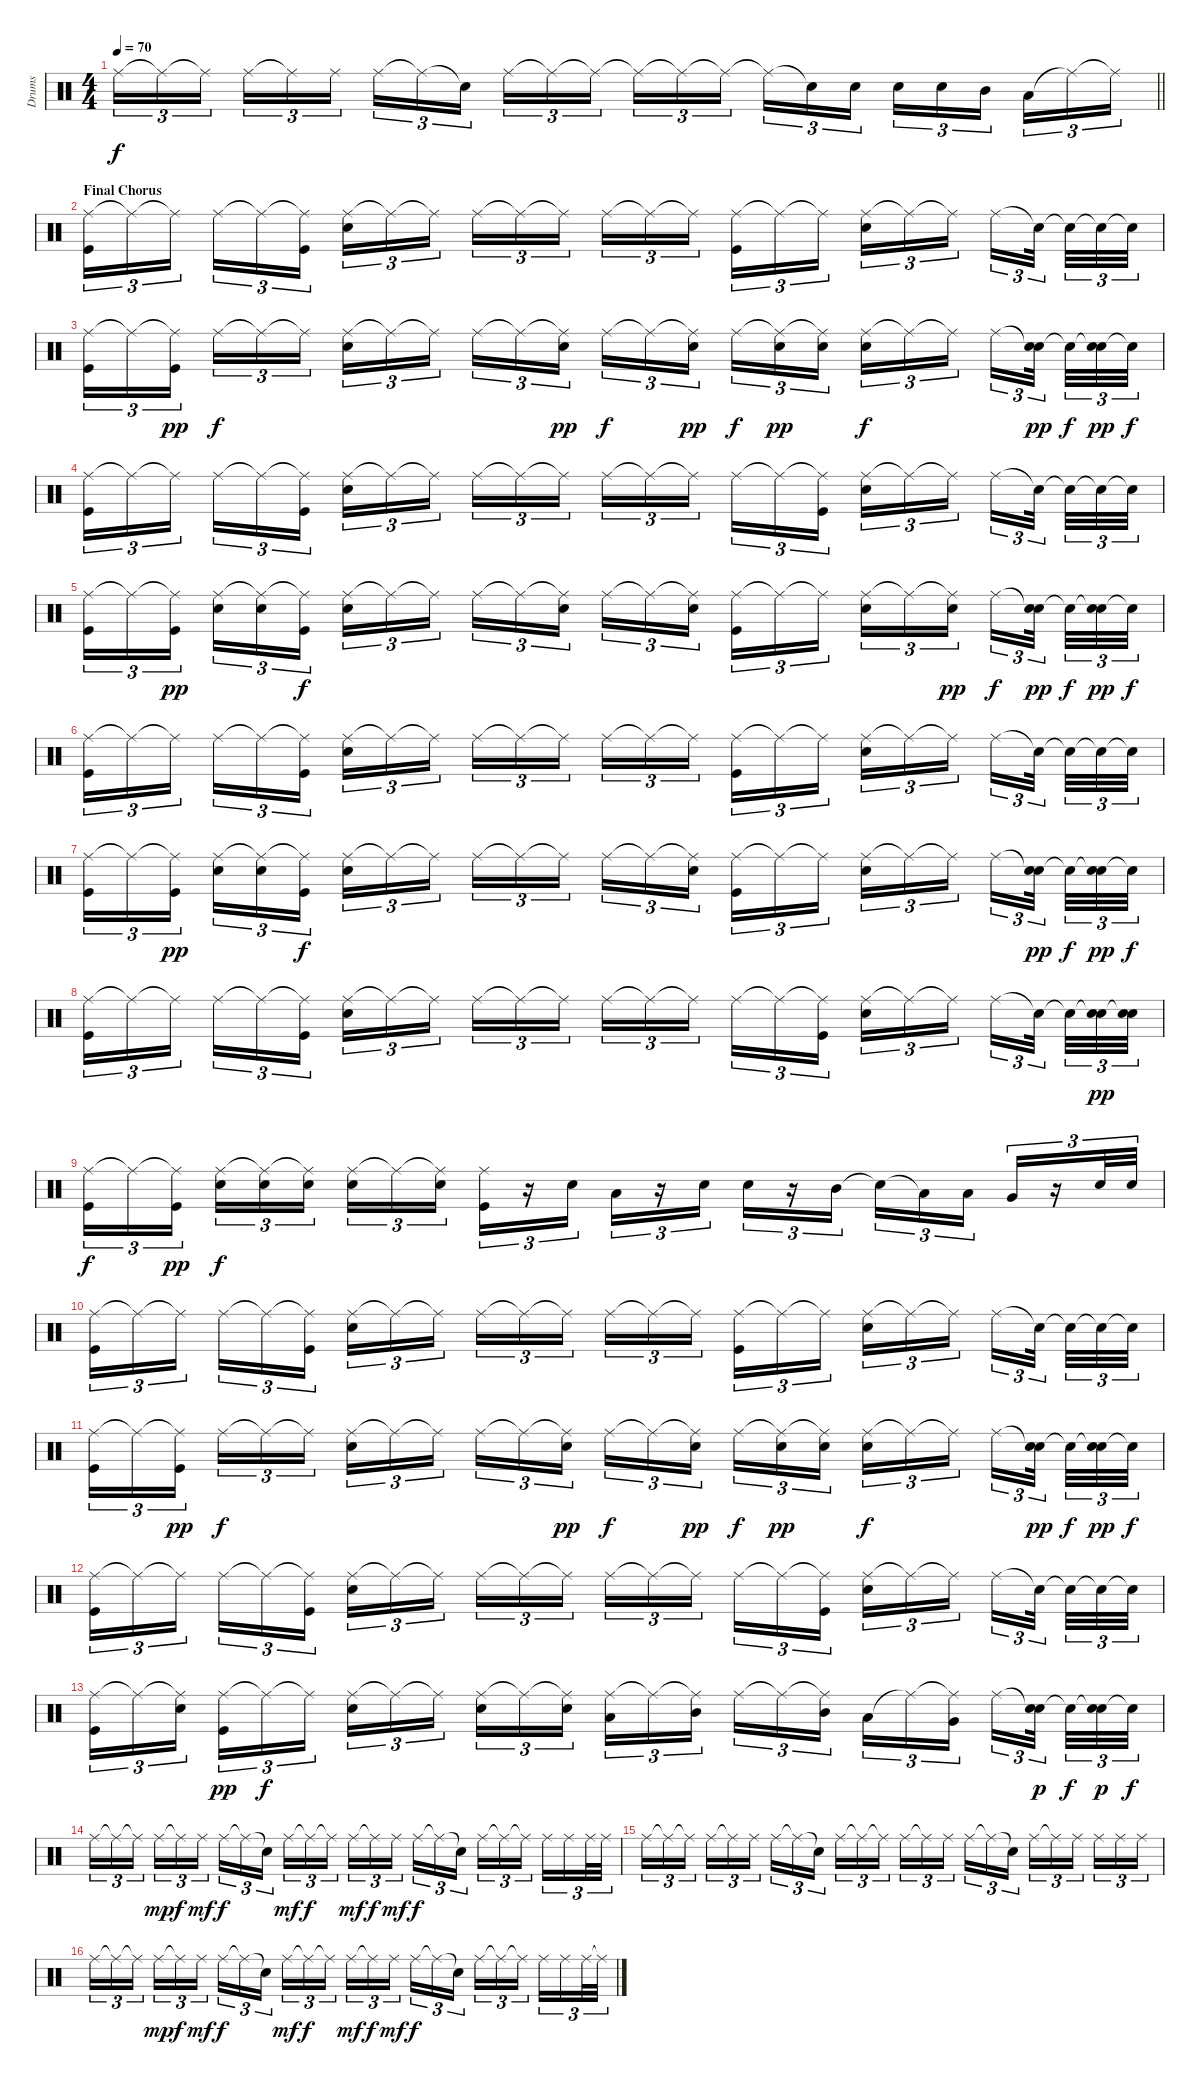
\track ("Drums" "Drums") {instrument percussion}
\staff {score}
\articulation defaults
\ts (4 4)
\tempo 70
\clef neutral
\barLineRight lightlight
\ks c "Ride (middle)".16{tu (3 2) dy f} "Ride (middle)"{t}.16{tu (3 2)} "Ride (middle)"{t}.16{tu (3 2)} "Ride (middle)".16{tu (3 2)} "Ride (middle)"{t}.16{tu (3 2)} "Ride (middle)".16{tu (3 2)} "Ride (middle)".16{tu (3 2)} "Ride (middle)"{t}.16{tu (3 2)} "Snare (hit)"{t}.16{tu (3 2)} "Ride (middle)".16{tu (3 2)} "Ride (middle)"{t}.16{tu (3 2)} "Ride (middle)"{t}.16{tu (3 2)} "Ride (middle)"{t}.16{tu (3 2)} "Ride (middle)"{t}.16{tu (3 2)} "Ride (middle)"{t}.16{tu (3 2)} "Ride (middle)"{t}.16{tu (3 2)} "Electric Snare (hit)"{t}.16{tu (3 2)} "Electric Snare (hit)".16{tu (3 2)} "Electric Snare (hit)".16{tu (3 2)} "Electric Snare (hit)".16{tu (3 2)} "Mid Tom (hit)".16{tu (3 2)} "Low Tom (hit)".16{tu (3 2)} "Ride (middle)"{t}.16{tu (3 2)} "Ride (middle)"{t}.16{tu (3 2)}
|
\section ("" "Final Chorus")
("Ride (middle)" "Kick (hit)").16{tu (3 2)} "Ride (middle)"{t}.16{tu (3 2)} "Ride (middle)"{t}.16{tu (3 2)} "Ride (middle)".16{tu (3 2)} "Ride (middle)"{t}.16{tu (3 2)} ("Ride (middle)"{t} "Kick (hit)").16{tu (3 2)} ("Ride (middle)" "Electric Snare (hit)").16{tu (3 2)} "Ride (middle)"{t}.16{tu (3 2)} "Ride (middle)"{t}.16{tu (3 2)} "Ride (middle)".16{tu (3 2)} "Ride (middle)"{t}.16{tu (3 2)} "Ride (middle)"{t}.16{tu (3 2)} "Ride (middle)".16{tu (3 2)} "Ride (middle)"{t}.16{tu (3 2)} "Ride (middle)"{t}.16{tu (3 2)} ("Ride (middle)" "Kick (hit)").16{tu (3 2)} "Ride (middle)"{t}.16{tu (3 2)} "Ride (middle)"{t}.16{tu (3 2)} ("Ride (middle)" "Electric Snare (hit)").16{tu (3 2)} "Ride (middle)"{t}.16{tu (3 2)} "Ride (middle)"{t}.16{tu (3 2)} "Ride (middle)".16{tu (3 2)} "Snare (hit)"{t}.32{tu (3 2)} "Snare (hit)"{t}.32{tu (3 2)} "Snare (hit)"{t}.32{tu (3 2)} "Snare (hit)"{t}.32{tu (3 2)} |
("Ride (middle)" "Kick (hit)").16{tu (3 2)} "Ride (middle)"{t}.16{tu (3 2)} ("Ride (middle)"{t} "Kick (hit)").16{tu (3 2) dy pp} "Ride (middle)".16{tu (3 2) dy f} "Ride (middle)"{t}.16{tu (3 2)} "Ride (middle)"{t}.16{tu (3 2)} ("Ride (middle)" "Electric Snare (hit)").16{tu (3 2)} "Ride (middle)"{t}.16{tu (3 2)} "Ride (middle)"{t}.16{tu (3 2)} "Ride (middle)".16{tu (3 2)} "Ride (middle)"{t}.16{tu (3 2)} ("Ride (middle)"{t} "Electric Snare (hit)").16{tu (3 2) dy pp} "Ride (middle)".16{tu (3 2) dy f} "Ride (middle)"{t}.16{tu (3 2)} ("Ride (middle)"{t} "Electric Snare (hit)").16{tu (3 2) dy pp} "Ride (middle)".16{tu (3 2) dy f} ("Ride (middle)"{t} "Electric Snare (hit)").16{tu (3 2) dy pp} ("Ride (middle)"{t} "Electric Snare (hit)").16{tu (3 2)} ("Ride (middle)" "Electric Snare (hit)").16{tu (3 2) dy f} "Ride (middle)"{t}.16{tu (3 2)} "Ride (middle)"{t}.16{tu (3 2)} "Ride (middle)".16{tu (3 2)} ("Snare (hit)"{t} "Electric Snare (hit)").32{tu (3 2) dy pp} "Snare (hit)"{t}.32{tu (3 2) dy f} ("Snare (hit)"{t} "Electric Snare (hit)").32{tu (3 2) dy pp} "Snare (hit)"{t}.32{tu (3 2) dy f} |
("Ride (middle)" "Kick (hit)").16{tu (3 2)} "Ride (middle)"{t}.16{tu (3 2)} "Ride (middle)"{t}.16{tu (3 2)} "Ride (middle)".16{tu (3 2)} "Ride (middle)"{t}.16{tu (3 2)} ("Ride (middle)"{t} "Kick (hit)").16{tu (3 2)} ("Ride (middle)" "Electric Snare (hit)").16{tu (3 2)} "Ride (middle)"{t}.16{tu (3 2)} "Ride (middle)"{t}.16{tu (3 2)} "Ride (middle)".16{tu (3 2)} "Ride (middle)"{t}.16{tu (3 2)} "Ride (middle)"{t}.16{tu (3 2)} "Ride (middle)".16{tu (3 2)} "Ride (middle)"{t}.16{tu (3 2)} "Ride (middle)"{t}.16{tu (3 2)} "Ride (middle)".16{tu (3 2)} "Ride (middle)"{t}.16{tu (3 2)} ("Ride (middle)"{t} "Kick (hit)").16{tu (3 2)} ("Ride (middle)" "Electric Snare (hit)").16{tu (3 2)} "Ride (middle)"{t}.16{tu (3 2)} "Ride (middle)"{t}.16{tu (3 2)} "Ride (middle)".16{tu (3 2)} "Snare (hit)"{t}.32{tu (3 2)} "Snare (hit)"{t}.32{tu (3 2)} "Snare (hit)"{t}.32{tu (3 2)} "Snare (hit)"{t}.32{tu (3 2)} |
("Ride (middle)" "Kick (hit)").16{tu (3 2)} "Ride (middle)"{t}.16{tu (3 2)} ("Ride (middle)"{t} "Kick (hit)").16{tu (3 2) dy pp} ("Ride (middle)" "Electric Snare (hit)").16{tu (3 2)} ("Ride (middle)"{t} "Electric Snare (hit)").16{tu (3 2)} ("Ride (middle)"{t} "Kick (hit)").16{tu (3 2) dy f} ("Ride (middle)" "Electric Snare (hit)").16{tu (3 2)} "Ride (middle)"{t}.16{tu (3 2)} "Ride (middle)"{t}.16{tu (3 2)} "Ride (middle)".16{tu (3 2)} "Ride (middle)"{t}.16{tu (3 2)} ("Ride (middle)"{t} "Electric Snare (hit)").16{tu (3 2)} "Ride (middle)".16{tu (3 2)} "Ride (middle)"{t}.16{tu (3 2)} ("Ride (middle)"{t} "Electric Snare (hit)").16{tu (3 2)} ("Ride (middle)" "Kick (hit)").16{tu (3 2)} "Ride (middle)"{t}.16{tu (3 2)} "Ride (middle)"{t}.16{tu (3 2)} ("Ride (middle)" "Electric Snare (hit)").16{tu (3 2)} "Ride (middle)"{t}.16{tu (3 2)} ("Ride (middle)"{t} "Electric Snare (hit)").16{tu (3 2) dy pp} "Ride (middle)".16{tu (3 2) dy f} ("Snare (hit)"{t} "Electric Snare (hit)").32{tu (3 2) dy pp} "Snare (hit)"{t}.32{tu (3 2) dy f} ("Snare (hit)"{t} "Electric Snare (hit)").32{tu (3 2) dy pp} "Snare (hit)"{t}.32{tu (3 2) dy f} |
("Ride (middle)" "Kick (hit)").16{tu (3 2)} "Ride (middle)"{t}.16{tu (3 2)} "Ride (middle)"{t}.16{tu (3 2)} "Ride (middle)".16{tu (3 2)} "Ride (middle)"{t}.16{tu (3 2)} ("Ride (middle)"{t} "Kick (hit)").16{tu (3 2)} ("Ride (middle)" "Electric Snare (hit)").16{tu (3 2)} "Ride (middle)"{t}.16{tu (3 2)} "Ride (middle)"{t}.16{tu (3 2)} "Ride (middle)".16{tu (3 2)} "Ride (middle)"{t}.16{tu (3 2)} "Ride (middle)"{t}.16{tu (3 2)} "Ride (middle)".16{tu (3 2)} "Ride (middle)"{t}.16{tu (3 2)} "Ride (middle)"{t}.16{tu (3 2)} ("Ride (middle)" "Kick (hit)").16{tu (3 2)} "Ride (middle)"{t}.16{tu (3 2)} "Ride (middle)"{t}.16{tu (3 2)} ("Ride (middle)" "Electric Snare (hit)").16{tu (3 2)} "Ride (middle)"{t}.16{tu (3 2)} "Ride (middle)"{t}.16{tu (3 2)} "Ride (middle)".16{tu (3 2)} "Snare (hit)"{t}.32{tu (3 2)} "Snare (hit)"{t}.32{tu (3 2)} "Snare (hit)"{t}.32{tu (3 2)} "Snare (hit)"{t}.32{tu (3 2)} |
("Ride (middle)" "Kick (hit)").16{tu (3 2)} "Ride (middle)"{t}.16{tu (3 2)} ("Ride (middle)"{t} "Kick (hit)").16{tu (3 2) dy pp} ("Ride (middle)" "Electric Snare (hit)").16{tu (3 2)} ("Ride (middle)"{t} "Electric Snare (hit)").16{tu (3 2)} ("Ride (middle)"{t} "Kick (hit)").16{tu (3 2) dy f} ("Ride (middle)" "Electric Snare (hit)").16{tu (3 2)} "Ride (middle)"{t}.16{tu (3 2)} "Ride (middle)"{t}.16{tu (3 2)} "Ride (middle)".16{tu (3 2)} "Ride (middle)"{t}.16{tu (3 2)} "Ride (middle)"{t}.16{tu (3 2)} "Ride (middle)".16{tu (3 2)} "Ride (middle)"{t}.16{tu (3 2)} ("Ride (middle)"{t} "Electric Snare (hit)").16{tu (3 2)} ("Ride (middle)" "Kick (hit)").16{tu (3 2)} "Ride (middle)"{t}.16{tu (3 2)} "Ride (middle)"{t}.16{tu (3 2)} ("Ride (middle)" "Electric Snare (hit)").16{tu (3 2)} "Ride (middle)"{t}.16{tu (3 2)} "Ride (middle)"{t}.16{tu (3 2)} "Ride (middle)".16{tu (3 2)} ("Snare (hit)"{t} "Electric Snare (hit)").32{tu (3 2) dy pp} "Snare (hit)"{t}.32{tu (3 2) dy f} ("Snare (hit)"{t} "Electric Snare (hit)").32{tu (3 2) dy pp} "Snare (hit)"{t}.32{tu (3 2) dy f} |
("Ride (middle)" "Kick (hit)").16{tu (3 2)} "Ride (middle)"{t}.16{tu (3 2)} "Ride (middle)"{t}.16{tu (3 2)} "Ride (middle)".16{tu (3 2)} "Ride (middle)"{t}.16{tu (3 2)} ("Ride (middle)"{t} "Kick (hit)").16{tu (3 2)} ("Ride (middle)" "Electric Snare (hit)").16{tu (3 2)} "Ride (middle)"{t}.16{tu (3 2)} "Ride (middle)"{t}.16{tu (3 2)} "Ride (middle)".16{tu (3 2)} "Ride (middle)"{t}.16{tu (3 2)} "Ride (middle)"{t}.16{tu (3 2)} "Ride (middle)".16{tu (3 2)} "Ride (middle)"{t}.16{tu (3 2)} "Ride (middle)"{t}.16{tu (3 2)} "Ride (middle)".16{tu (3 2)} "Ride (middle)"{t}.16{tu (3 2)} ("Ride (middle)"{t} "Kick (hit)").16{tu (3 2)} ("Ride (middle)" "Electric Snare (hit)").16{tu (3 2)} "Ride (middle)"{t}.16{tu (3 2)} "Ride (middle)"{t}.16{tu (3 2)} "Ride (middle)".16{tu (3 2)} "Snare (hit)"{t}.32{tu (3 2)} "Snare (hit)"{t}.32{tu (3 2)} ("Snare (hit)"{t} "Electric Snare (hit)").32{tu (3 2) dy pp} ("Snare (hit)"{t} "Electric Snare (hit)").32{tu (3 2)} |
("Ride (middle)" "Kick (hit)").16{tu (3 2) dy f} "Ride (middle)"{t}.16{tu (3 2)} ("Ride (middle)"{t} "Kick (hit)").16{tu (3 2) dy pp} ("Ride (middle)" "Electric Snare (hit)").16{tu (3 2) dy f} ("Ride (middle)"{t} "Electric Snare (hit)").16{tu (3 2)} ("Ride (middle)"{t} "Electric Snare (hit)").16{tu (3 2)} ("Ride (middle)" "Electric Snare (hit)").16{tu (3 2)} "Ride (middle)"{t}.16{tu (3 2)} ("Ride (middle)"{t} "Electric Snare (hit)").16{tu (3 2)} ("Ride (middle)" "Kick (hit)").16{tu (3 2)} r.16{tu (3 2)} "Electric Snare (hit)".16{tu (3 2)} "Low Tom (hit)".16{tu (3 2)} r.16{tu (3 2)} "Electric Snare (hit)".16{tu (3 2)} "Electric Snare (hit)".16{tu (3 2)} r.16{tu (3 2)} "Mid Tom (hit)".16{tu (3 2)} "Snare (hit)"{t}.16{tu (3 2)} "Low Tom (hit)"{t}.16{tu (3 2)} "Low Tom (hit)".16{tu (3 2)} "Very Low Tom (hit)".16{tu (3 2)} r.16{tu (3 2)} "Electric Snare (hit)".32{tu (3 2)} "Electric Snare (hit)".32{tu (3 2)} |
("Ride (middle)" "Kick (hit)").16{tu (3 2)} "Ride (middle)"{t}.16{tu (3 2)} "Ride (middle)"{t}.16{tu (3 2)} "Ride (middle)".16{tu (3 2)} "Ride (middle)"{t}.16{tu (3 2)} ("Ride (middle)"{t} "Kick (hit)").16{tu (3 2)} ("Ride (middle)" "Electric Snare (hit)").16{tu (3 2)} "Ride (middle)"{t}.16{tu (3 2)} "Ride (middle)"{t}.16{tu (3 2)} "Ride (middle)".16{tu (3 2)} "Ride (middle)"{t}.16{tu (3 2)} "Ride (middle)"{t}.16{tu (3 2)} "Ride (middle)".16{tu (3 2)} "Ride (middle)"{t}.16{tu (3 2)} "Ride (middle)"{t}.16{tu (3 2)} ("Ride (middle)" "Kick (hit)").16{tu (3 2)} "Ride (middle)"{t}.16{tu (3 2)} "Ride (middle)"{t}.16{tu (3 2)} ("Ride (middle)" "Electric Snare (hit)").16{tu (3 2)} "Ride (middle)"{t}.16{tu (3 2)} "Ride (middle)"{t}.16{tu (3 2)} "Ride (middle)".16{tu (3 2)} "Snare (hit)"{t}.32{tu (3 2)} "Snare (hit)"{t}.32{tu (3 2)} "Snare (hit)"{t}.32{tu (3 2)} "Snare (hit)"{t}.32{tu (3 2)} |
("Ride (middle)" "Kick (hit)").16{tu (3 2)} "Ride (middle)"{t}.16{tu (3 2)} ("Ride (middle)"{t} "Kick (hit)").16{tu (3 2) dy pp} "Ride (middle)".16{tu (3 2) dy f} "Ride (middle)"{t}.16{tu (3 2)} "Ride (middle)"{t}.16{tu (3 2)} ("Ride (middle)" "Electric Snare (hit)").16{tu (3 2)} "Ride (middle)"{t}.16{tu (3 2)} "Ride (middle)"{t}.16{tu (3 2)} "Ride (middle)".16{tu (3 2)} "Ride (middle)"{t}.16{tu (3 2)} ("Ride (middle)"{t} "Electric Snare (hit)").16{tu (3 2) dy pp} "Ride (middle)".16{tu (3 2) dy f} "Ride (middle)"{t}.16{tu (3 2)} ("Ride (middle)"{t} "Electric Snare (hit)").16{tu (3 2) dy pp} "Ride (middle)".16{tu (3 2) dy f} ("Ride (middle)"{t} "Electric Snare (hit)").16{tu (3 2) dy pp} ("Ride (middle)"{t} "Electric Snare (hit)").16{tu (3 2)} ("Ride (middle)" "Electric Snare (hit)").16{tu (3 2) dy f} "Ride (middle)"{t}.16{tu (3 2)} "Ride (middle)"{t}.16{tu (3 2)} "Ride (middle)".16{tu (3 2)} ("Snare (hit)"{t} "Electric Snare (hit)").32{tu (3 2) dy pp} "Snare (hit)"{t}.32{tu (3 2) dy f} ("Snare (hit)"{t} "Electric Snare (hit)").32{tu (3 2) dy pp} "Snare (hit)"{t}.32{tu (3 2) dy f} |
("Ride (middle)" "Kick (hit)").16{tu (3 2)} "Ride (middle)"{t}.16{tu (3 2)} "Ride (middle)"{t}.16{tu (3 2)} "Ride (middle)".16{tu (3 2)} "Ride (middle)"{t}.16{tu (3 2)} ("Ride (middle)"{t} "Kick (hit)").16{tu (3 2)} ("Ride (middle)" "Electric Snare (hit)").16{tu (3 2)} "Ride (middle)"{t}.16{tu (3 2)} "Ride (middle)"{t}.16{tu (3 2)} "Ride (middle)".16{tu (3 2)} "Ride (middle)"{t}.16{tu (3 2)} "Ride (middle)"{t}.16{tu (3 2)} "Ride (middle)".16{tu (3 2)} "Ride (middle)"{t}.16{tu (3 2)} "Ride (middle)"{t}.16{tu (3 2)} "Ride (middle)".16{tu (3 2)} "Ride (middle)"{t}.16{tu (3 2)} ("Ride (middle)"{t} "Kick (hit)").16{tu (3 2)} ("Ride (middle)" "Electric Snare (hit)").16{tu (3 2)} "Ride (middle)"{t}.16{tu (3 2)} "Ride (middle)"{t}.16{tu (3 2)} "Ride (middle)".16{tu (3 2)} "Snare (hit)"{t}.32{tu (3 2)} "Snare (hit)"{t}.32{tu (3 2)} "Snare (hit)"{t}.32{tu (3 2)} "Snare (hit)"{t}.32{tu (3 2)} |
("Ride (middle)" "Kick (hit)").16{tu (3 2)} "Ride (middle)"{t}.16{tu (3 2)} ("Ride (middle)"{t} "Electric Snare (hit)").16{tu (3 2)} ("Ride (middle)" "Kick (hit)").16{tu (3 2) dy pp} "Ride (middle)"{t}.16{tu (3 2) dy f} "Ride (middle)"{t}.16{tu (3 2)} ("Ride (middle)" "Electric Snare (hit)").16{tu (3 2)} "Ride (middle)"{t}.16{tu (3 2)} "Ride (middle)"{t}.16{tu (3 2)} ("Ride (middle)" "Electric Snare (hit)").16{tu (3 2)} "Ride (middle)"{t}.16{tu (3 2)} ("Ride (middle)"{t} "Electric Snare (hit)").16{tu (3 2)} ("Ride (middle)" "Low Tom (hit)").16{tu (3 2)} "Ride (middle)"{t}.16{tu (3 2)} ("Ride (middle)"{t} "Mid Tom (hit)").16{tu (3 2)} "Ride (middle)".16{tu (3 2)} "Ride (middle)"{t}.16{tu (3 2)} ("Ride (middle)"{t} "Mid Tom (hit)").16{tu (3 2)} "Low Tom (hit)".16{tu (3 2)} "Ride (middle)"{t}.16{tu (3 2)} ("Ride (middle)"{t} "Very Low Tom (hit)").16{tu (3 2)} "Ride (middle)".16{tu (3 2)} ("Snare (hit)"{t} "Electric Snare (hit)").32{tu (3 2) dy p} "Snare (hit)"{t}.32{tu (3 2) dy f} ("Snare (hit)"{t} "Electric Snare (hit)").32{tu (3 2) dy p} "Snare (hit)"{t}.32{tu (3 2) dy f} |
"Ride (middle)".16{tu (3 2)} "Ride (middle)"{t}.16{tu (3 2)} "Ride (middle)"{t}.16{tu (3 2)} "Ride (middle)".16{tu (3 2) dy mp} "Ride (middle)"{t}.16{tu (3 2) dy f} "Ride (middle)".16{tu (3 2) dy mf} "Ride (middle)".16{tu (3 2) dy f} "Ride (middle)"{t}.16{tu (3 2)} "Snare (hit)"{t}.16{tu (3 2)} "Ride (middle)".16{tu (3 2) dy mf} "Ride (middle)"{t}.16{tu (3 2) dy f} "Ride (middle)"{t}.16{tu (3 2)} "Ride (middle)".16{tu (3 2) dy mf} "Ride (middle)"{t}.16{tu (3 2) dy f} "Ride (middle)".16{tu (3 2) dy mf} "Ride (middle)".16{tu (3 2) dy f} "Ride (middle)"{t}.16{tu (3 2)} "Snare (hit)"{t}.16{tu (3 2)} "Ride (middle)".16{tu (3 2)} "Ride (middle)"{t}.16{tu (3 2)} "Ride (middle)"{t}.16{tu (3 2)} "Ride (middle)".16{tu (3 2)} "Ride (middle)".16{tu (3 2)} "Ride (middle)".32{tu (3 2)} "Ride (middle)".32{tu (3 2)} |
"Ride (middle)".16{tu (3 2)} "Ride (middle)"{t}.16{tu (3 2)} "Ride (middle)"{t}.16{tu (3 2)} "Ride (middle)".16{tu (3 2)} "Ride (middle)"{t}.16{tu (3 2)} "Ride (middle)".16{tu (3 2)} "Ride (middle)".16{tu (3 2)} "Ride (middle)"{t}.16{tu (3 2)} "Snare (hit)"{t}.16{tu (3 2)} "Ride (middle)".16{tu (3 2)} "Ride (middle)"{t}.16{tu (3 2)} "Ride (middle)"{t}.16{tu (3 2)} "Ride (middle)".16{tu (3 2)} "Ride (middle)"{t}.16{tu (3 2)} "Ride (middle)".16{tu (3 2)} "Ride (middle)".16{tu (3 2)} "Ride (middle)"{t}.16{tu (3 2)} "Snare (hit)"{t}.16{tu (3 2)} "Ride (middle)".16{tu (3 2)} "Ride (middle)"{t}.16{tu (3 2)} "Ride (middle)".16{tu (3 2)} "Ride (middle)".16{tu (3 2)} "Ride (middle)".16{tu (3 2)} "Ride (middle)".16{tu (3 2)} |
"Ride (middle)".16{tu (3 2)} "Ride (middle)"{t}.16{tu (3 2)} "Ride (middle)"{t}.16{tu (3 2)} "Ride (middle)".16{tu (3 2) dy mp} "Ride (middle)"{t}.16{tu (3 2) dy f} "Ride (middle)".16{tu (3 2) dy mf} "Ride (middle)".16{tu (3 2) dy f} "Ride (middle)"{t}.16{tu (3 2)} "Snare (hit)"{t}.16{tu (3 2)} "Ride (middle)".16{tu (3 2) dy mf} "Ride (middle)"{t}.16{tu (3 2) dy f} "Ride (middle)"{t}.16{tu (3 2)} "Ride (middle)".16{tu (3 2) dy mf} "Ride (middle)"{t}.16{tu (3 2) dy f} "Ride (middle)".16{tu (3 2) dy mf} "Ride (middle)".16{tu (3 2) dy f} "Ride (middle)"{t}.16{tu (3 2)} "Snare (hit)"{t}.16{tu (3 2)} "Ride (middle)".16{tu (3 2)} "Ride (middle)"{t}.16{tu (3 2)} "Ride (middle)"{t}.16{tu (3 2)} "Ride (middle)".16{tu (3 2)} "Ride (middle)".16{tu (3 2)} "Ride (middle)".32{tu (3 2)} "Ride (middle)"{t}.32{tu (3 2)}
